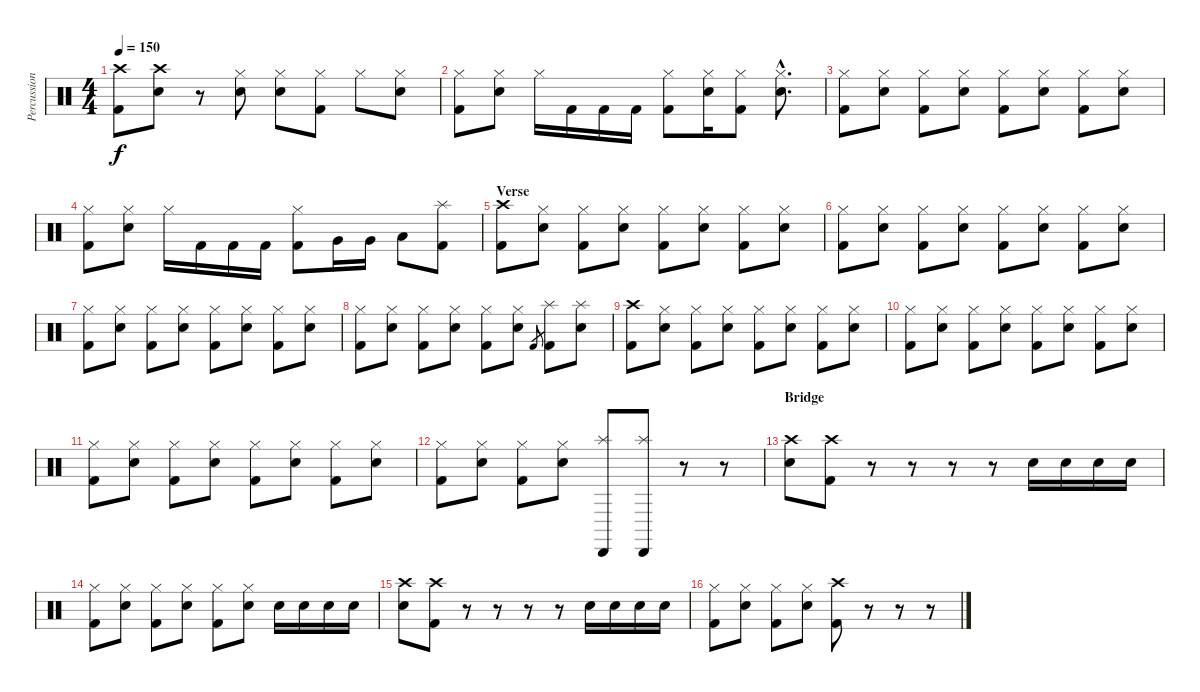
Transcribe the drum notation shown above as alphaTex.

\track ("Percussion" "Percussion") {instrument percussion}
\staff {score}
\articulation defaults
\ts (4 4)
\tempo 150
\clef neutral
\ks c
("Crash high (hit)" "Kick (hit) 2").8{dy f} ("Crash high (hit)" "Electric Snare (hit)").8 r.8 ("Hi-Hat (closed)" "Electric Snare (hit)").8 ("Hi-Hat (closed)" "Electric Snare (hit)").8 ("Hi-Hat (closed)" "Kick (hit) 2").8 "Hi-Hat (closed)".8 ("Hi-Hat (closed)" "Electric Snare (hit)").8 |
("Hi-Hat (closed)" "Kick (hit) 2").8 ("Hi-Hat (closed)" "Electric Snare (hit)").8 "Hi-Hat (closed)".16 "Kick (hit) 2".16 "Kick (hit) 2".16 "Kick (hit) 2".16 ("Hi-Hat (closed)" "Kick (hit) 2").8 ("Hi-Hat (closed)" "Electric Snare (hit)").16 ("Hi-Hat (closed)" "Kick (hit) 2").8 ("Hi-Hat (closed)"{hac} "Electric Snare (hit)"{hac}).8{d} |
("Hi-Hat (closed)" "Kick (hit) 2").8 ("Hi-Hat (closed)" "Electric Snare (hit)").8 ("Hi-Hat (closed)" "Kick (hit) 2").8 ("Hi-Hat (closed)" "Electric Snare (hit)").8 ("Hi-Hat (closed)" "Kick (hit) 2").8 ("Hi-Hat (closed)" "Electric Snare (hit)").8 ("Hi-Hat (closed)" "Kick (hit) 2").8 ("Hi-Hat (closed)" "Electric Snare (hit)").8 |
("Hi-Hat (closed)" "Kick (hit) 2").8 ("Hi-Hat (closed)" "Electric Snare (hit)").8 "Hi-Hat (closed)".16 "Kick (hit) 2".16 "Kick (hit) 2".16 "Kick (hit) 2".16 ("Hi-Hat (closed)" "Kick (hit) 2").8 "Very Low Tom (hit)".16 "Very Low Tom (hit)".16 "Low Floor Tom (hit)".8 ("Splash (hit)" "Kick (hit) 2").8 |
\section ("" "Verse")
("Crash high (hit)" "Kick (hit) 2").8 ("Hi-Hat (closed)" "Electric Snare (hit)").8 ("Hi-Hat (closed)" "Kick (hit) 2").8 ("Hi-Hat (closed)" "Electric Snare (hit)").8 ("Hi-Hat (closed)" "Kick (hit) 2").8 ("Hi-Hat (closed)" "Electric Snare (hit)").8 ("Hi-Hat (closed)" "Kick (hit) 2").8 ("Hi-Hat (closed)" "Electric Snare (hit)").8 |
("Hi-Hat (closed)" "Kick (hit) 2").8 ("Hi-Hat (closed)" "Electric Snare (hit)").8 ("Hi-Hat (closed)" "Kick (hit) 2").8 ("Hi-Hat (closed)" "Electric Snare (hit)").8 ("Hi-Hat (closed)" "Kick (hit) 2").8 ("Hi-Hat (closed)" "Electric Snare (hit)").8 ("Hi-Hat (closed)" "Kick (hit) 2").8 ("Hi-Hat (closed)" "Electric Snare (hit)").8 |
("Hi-Hat (closed)" "Kick (hit) 2").8 ("Hi-Hat (closed)" "Electric Snare (hit)").8 ("Hi-Hat (closed)" "Kick (hit) 2").8 ("Hi-Hat (closed)" "Electric Snare (hit)").8 ("Hi-Hat (closed)" "Kick (hit) 2").8 ("Hi-Hat (closed)" "Electric Snare (hit)").8 ("Hi-Hat (closed)" "Kick (hit) 2").8 ("Hi-Hat (closed)" "Electric Snare (hit)").8 |
("Hi-Hat (closed)" "Kick (hit) 2").8 ("Hi-Hat (closed)" "Electric Snare (hit)").8 ("Hi-Hat (closed)" "Kick (hit) 2").8 ("Hi-Hat (closed)" "Electric Snare (hit)").8 ("Hi-Hat (closed)" "Kick (hit) 2").8 ("Hi-Hat (closed)" "Electric Snare (hit)").8 "Kick (hit) 2".8{gr} ("Splash (hit)" "Kick (hit) 2").8 ("Splash (hit)" "Electric Snare (hit)").8 |
("Crash high (hit)" "Kick (hit) 2").8 ("Hi-Hat (closed)" "Electric Snare (hit)").8 ("Hi-Hat (closed)" "Kick (hit) 2").8 ("Hi-Hat (closed)" "Electric Snare (hit)").8 ("Hi-Hat (closed)" "Kick (hit) 2").8 ("Hi-Hat (closed)" "Electric Snare (hit)").8 ("Hi-Hat (closed)" "Kick (hit) 2").8 ("Hi-Hat (closed)" "Electric Snare (hit)").8 |
("Hi-Hat (closed)" "Kick (hit) 2").8 ("Hi-Hat (closed)" "Electric Snare (hit)").8 ("Hi-Hat (closed)" "Kick (hit) 2").8 ("Hi-Hat (closed)" "Electric Snare (hit)").8 ("Hi-Hat (closed)" "Kick (hit) 2").8 ("Hi-Hat (closed)" "Electric Snare (hit)").8 ("Hi-Hat (closed)" "Kick (hit) 2").8 ("Hi-Hat (closed)" "Electric Snare (hit)").8 |
("Hi-Hat (closed)" "Kick (hit) 2").8 ("Hi-Hat (closed)" "Electric Snare (hit)").8 ("Hi-Hat (closed)" "Kick (hit) 2").8 ("Hi-Hat (closed)" "Electric Snare (hit)").8 ("Hi-Hat (closed)" "Kick (hit) 2").8 ("Hi-Hat (closed)" "Electric Snare (hit)").8 ("Hi-Hat (closed)" "Kick (hit) 2").8 ("Hi-Hat (closed)" "Electric Snare (hit)").8 |
("Hi-Hat (closed)" "Kick (hit) 2").8 ("Hi-Hat (closed)" "Electric Snare (hit)").8 ("Hi-Hat (closed)" "Kick (hit) 2").8 ("Hi-Hat (closed)" "Electric Snare (hit)").8 ("Splash (hit)" "Cabasa (hit)").8 ("Splash (hit)" "Cabasa (hit)").8 r.8 r.8 |
\section ("" "Bridge")
("Crash high (hit)" "Electric Snare (hit)").8 ("Crash high (hit)" "Kick (hit) 2").8 r.8 r.8 r.8 r.8 "Electric Snare (hit)".16 "Electric Snare (hit)".16 "Electric Snare (hit)".16 "Electric Snare (hit)".16 |
("Hi-Hat (closed)" "Kick (hit) 2").8 ("Hi-Hat (closed)" "Electric Snare (hit)").8 ("Hi-Hat (closed)" "Kick (hit) 2").8 ("Hi-Hat (closed)" "Electric Snare (hit)").8 ("Hi-Hat (closed)" "Kick (hit) 2").8 ("Hi-Hat (closed)" "Electric Snare (hit)").8 "Electric Snare (hit)".16 "Electric Snare (hit)".16 "Electric Snare (hit)".16 "Electric Snare (hit)".16 |
("Crash high (hit)" "Electric Snare (hit)").8 ("Crash high (hit)" "Kick (hit) 2").8 r.8 r.8 r.8 r.8 "Electric Snare (hit)".16 "Electric Snare (hit)".16 "Electric Snare (hit)".16 "Electric Snare (hit)".16 |
("Hi-Hat (closed)" "Kick (hit) 2").8 ("Hi-Hat (closed)" "Electric Snare (hit)").8 ("Hi-Hat (closed)" "Kick (hit) 2").8 ("Hi-Hat (closed)" "Electric Snare (hit)").8 ("Crash high (hit)" "Kick (hit) 2").8 r.8 r.8 r.8
